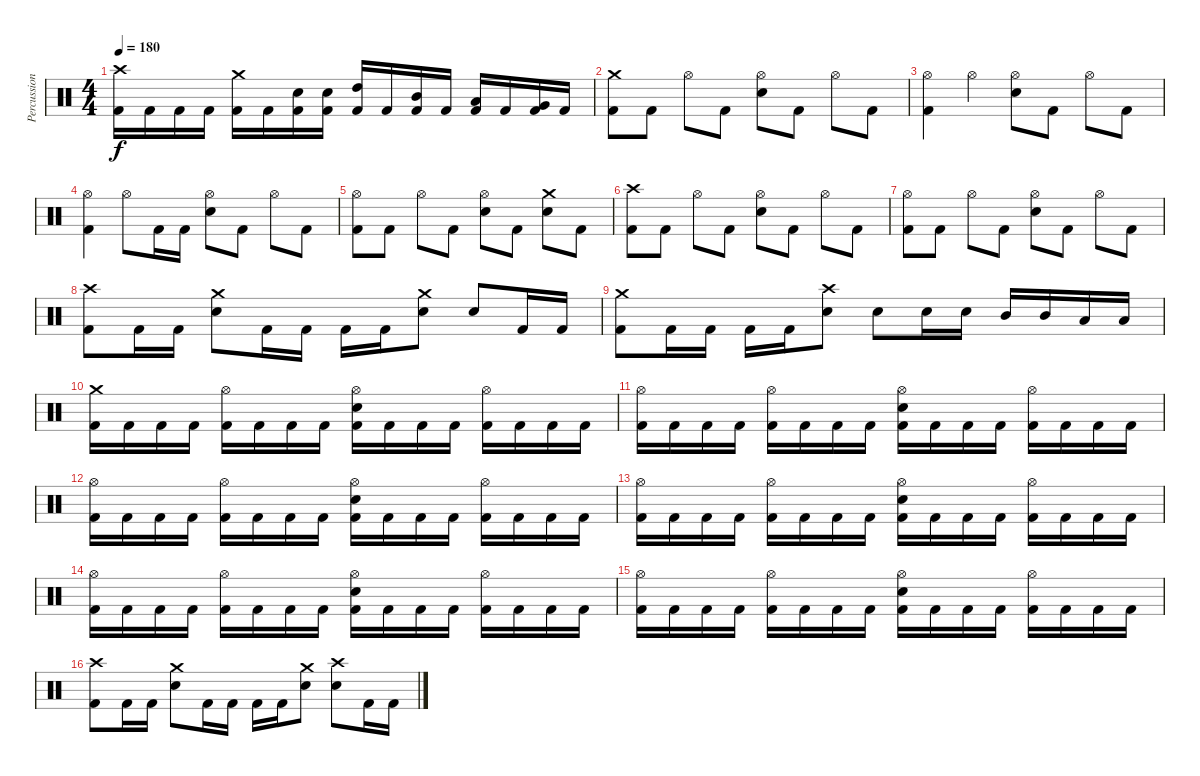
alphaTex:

\track ("Percussion" "Percussion") {instrument percussion}
\staff {score}
\articulation defaults
\ts (4 4)
\tempo 180
\clef neutral
\ks c
("Kick (hit) 2" "Crash high (hit)").16{dy f} "Kick (hit) 2".16 "Kick (hit) 2".16 "Kick (hit) 2".16 ("Kick (hit) 2" "Crash medium (hit)").16 "Kick (hit) 2".16 ("Kick (hit) 2" "Electric Snare (hit)").16 ("Kick (hit) 2" "Electric Snare (hit)").16 ("Kick (hit) 2" "High Tom (hit)").16 "Kick (hit) 2".16 ("Kick (hit) 2" "Mid Tom (hit)").16 "Kick (hit) 2".16 ("Kick (hit) 2" "Low Tom (hit)").16 "Kick (hit) 2".16 ("Kick (hit) 2" "Very Low Tom (hit)").16 "Kick (hit) 2".16 |
\section ("" "")
("Kick (hit) 2" "Crash medium (hit)").8 "Kick (hit) 2".8 "Hi-Hat (open)".8 "Kick (hit) 2".8 ("Electric Snare (hit)" "Hi-Hat (open)").8 "Kick (hit) 2".8 "Hi-Hat (open)".8 "Kick (hit) 2".8 |
("Kick (hit) 2" "Hi-Hat (open)").4 "Hi-Hat (open)".4 ("Electric Snare (hit)" "Hi-Hat (open)").8 "Kick (hit) 2".8 "Hi-Hat (open)".8 "Kick (hit) 2".8 |
("Kick (hit) 2" "Hi-Hat (open)").4 "Hi-Hat (open)".8 "Kick (hit) 2".16 "Kick (hit) 2".16 ("Electric Snare (hit)" "Hi-Hat (open)").8 "Kick (hit) 2".8 "Hi-Hat (open)".8 "Kick (hit) 2".8 |
("Kick (hit) 2" "Hi-Hat (open)").8 "Kick (hit) 2".8 "Hi-Hat (open)".8 "Kick (hit) 2".8 ("Electric Snare (hit)" "Hi-Hat (open)").8 "Kick (hit) 2".8 ("Electric Snare (hit)" "Crash medium (hit)").8 "Kick (hit) 2".8 |
("Kick (hit) 2" "Crash high (hit)").8 "Kick (hit) 2".8 "Hi-Hat (open)".8 "Kick (hit) 2".8 ("Electric Snare (hit)" "Hi-Hat (open)").8 "Kick (hit) 2".8 "Hi-Hat (open)".8 "Kick (hit) 2".8 |
("Kick (hit) 2" "Hi-Hat (open)").8 "Kick (hit) 2".8 "Hi-Hat (open)".8 "Kick (hit) 2".8 ("Electric Snare (hit)" "Hi-Hat (open)").8 "Kick (hit) 2".8 "Hi-Hat (open)".8 "Kick (hit) 2".8 |
("Kick (hit) 2" "Crash high (hit)").8 "Kick (hit) 2".16 "Kick (hit) 2".16 ("Electric Snare (hit)" "Crash medium (hit)").8 "Kick (hit) 2".16 "Kick (hit) 2".16 "Kick (hit) 2".16 "Kick (hit) 2".16 ("Electric Snare (hit)" "Crash medium (hit)").8 "Electric Snare (hit)".8 "Kick (hit) 2".16 "Kick (hit) 2".16 |
("Kick (hit) 2" "Crash medium (hit)").8 "Kick (hit) 2".16 "Kick (hit) 2".16 "Kick (hit) 2".16 "Kick (hit) 2".16 ("Electric Snare (hit)" "Crash high (hit)").8 "Electric Snare (hit)".8 "Electric Snare (hit)".16 "Electric Snare (hit)".16 "Mid Tom (hit)".16 "Mid Tom (hit)".16 "Low Tom (hit)".16 "Low Tom (hit)".16 |
("Kick (hit) 2" "Crash medium (hit)").16 "Kick (hit) 2".16 "Kick (hit) 2".16 "Kick (hit) 2".16 ("Kick (hit) 2" "Hi-Hat (open)").16 "Kick (hit) 2".16 "Kick (hit) 2".16 "Kick (hit) 2".16 ("Kick (hit) 2" "Electric Snare (hit)" "Hi-Hat (open)").16 "Kick (hit) 2".16 "Kick (hit) 2".16 "Kick (hit) 2".16 ("Kick (hit) 2" "Hi-Hat (open)").16 "Kick (hit) 2".16 "Kick (hit) 2".16 "Kick (hit) 2".16 |
("Kick (hit) 2" "Hi-Hat (open)").16 "Kick (hit) 2".16 "Kick (hit) 2".16 "Kick (hit) 2".16 ("Kick (hit) 2" "Hi-Hat (open)").16 "Kick (hit) 2".16 "Kick (hit) 2".16 "Kick (hit) 2".16 ("Kick (hit) 2" "Electric Snare (hit)" "Hi-Hat (open)").16 "Kick (hit) 2".16 "Kick (hit) 2".16 "Kick (hit) 2".16 ("Kick (hit) 2" "Hi-Hat (open)").16 "Kick (hit) 2".16 "Kick (hit) 2".16 "Kick (hit) 2".16 |
("Kick (hit) 2" "Hi-Hat (open)").16 "Kick (hit) 2".16 "Kick (hit) 2".16 "Kick (hit) 2".16 ("Kick (hit) 2" "Hi-Hat (open)").16 "Kick (hit) 2".16 "Kick (hit) 2".16 "Kick (hit) 2".16 ("Kick (hit) 2" "Electric Snare (hit)" "Hi-Hat (open)").16 "Kick (hit) 2".16 "Kick (hit) 2".16 "Kick (hit) 2".16 ("Kick (hit) 2" "Hi-Hat (open)").16 "Kick (hit) 2".16 "Kick (hit) 2".16 "Kick (hit) 2".16 |
("Kick (hit) 2" "Hi-Hat (open)").16 "Kick (hit) 2".16 "Kick (hit) 2".16 "Kick (hit) 2".16 ("Kick (hit) 2" "Hi-Hat (open)").16 "Kick (hit) 2".16 "Kick (hit) 2".16 "Kick (hit) 2".16 ("Kick (hit) 2" "Electric Snare (hit)" "Hi-Hat (open)").16 "Kick (hit) 2".16 "Kick (hit) 2".16 "Kick (hit) 2".16 ("Kick (hit) 2" "Hi-Hat (open)").16 "Kick (hit) 2".16 "Kick (hit) 2".16 "Kick (hit) 2".16 |
("Kick (hit) 2" "Hi-Hat (open)").16 "Kick (hit) 2".16 "Kick (hit) 2".16 "Kick (hit) 2".16 ("Kick (hit) 2" "Hi-Hat (open)").16 "Kick (hit) 2".16 "Kick (hit) 2".16 "Kick (hit) 2".16 ("Kick (hit) 2" "Electric Snare (hit)" "Hi-Hat (open)").16 "Kick (hit) 2".16 "Kick (hit) 2".16 "Kick (hit) 2".16 ("Kick (hit) 2" "Hi-Hat (open)").16 "Kick (hit) 2".16 "Kick (hit) 2".16 "Kick (hit) 2".16 |
("Kick (hit) 2" "Hi-Hat (open)").16 "Kick (hit) 2".16 "Kick (hit) 2".16 "Kick (hit) 2".16 ("Kick (hit) 2" "Hi-Hat (open)").16 "Kick (hit) 2".16 "Kick (hit) 2".16 "Kick (hit) 2".16 ("Kick (hit) 2" "Electric Snare (hit)" "Hi-Hat (open)").16 "Kick (hit) 2".16 "Kick (hit) 2".16 "Kick (hit) 2".16 ("Kick (hit) 2" "Hi-Hat (open)").16 "Kick (hit) 2".16 "Kick (hit) 2".16 "Kick (hit) 2".16 |
("Kick (hit) 2" "Crash high (hit)").8 "Kick (hit) 2".16 "Kick (hit) 2".16 ("Electric Snare (hit)" "Crash medium (hit)").8 "Kick (hit) 2".16 "Kick (hit) 2".16 "Kick (hit) 2".16 "Kick (hit) 2".16 ("Electric Snare (hit)" "Crash medium (hit)").8 ("Electric Snare (hit)" "Crash high (hit)").8 "Kick (hit) 2".16 "Kick (hit) 2".16
